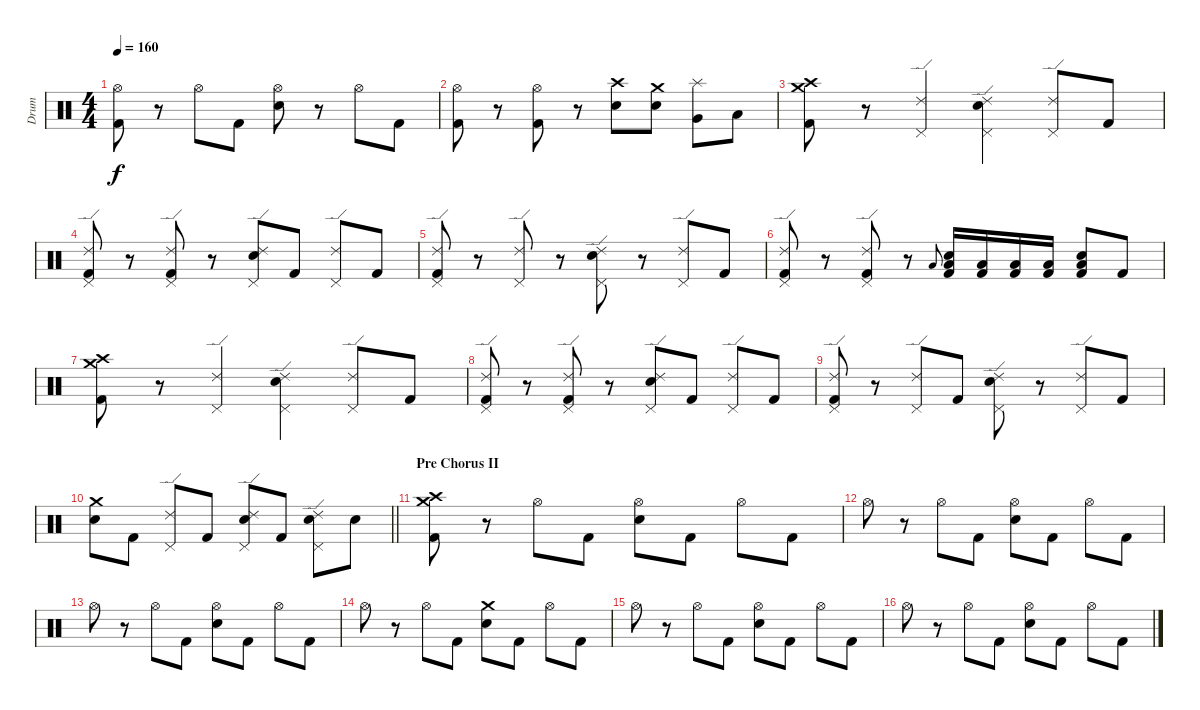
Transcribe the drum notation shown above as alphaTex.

\track ("Drum" "Drum") {instrument percussion}
\staff {score}
\articulation defaults
\ts (4 4)
\tempo 160
\clef neutral
\ks c
("Hi-Hat (open)" "Kick (hit) 2").8{dy f} r.8 "Hi-Hat (open)".8 "Kick (hit) 2".8 ("Hi-Hat (open)" "Electric Snare (hit)").8 r.8 "Hi-Hat (open)".8 "Kick (hit) 2".8 |
("Hi-Hat (open)" "Kick (hit) 2").8 r.8 ("Hi-Hat (open)" "Kick (hit) 2").8 r.8 ("Crash high (hit)" "Electric Snare (hit)").8 ("Crash medium (hit)" "Electric Snare (hit)").8 ("Splash (hit)" "Very Low Tom (hit)").8 "Low Floor Tom (hit)".8 |
("Kick (hit) 2" "Crash high (hit)" "Crash medium (hit)").8 r.8 ("Pedal Hi-Hat (hit)" "Ride (edge) 2").4 ("Ride (edge) 2" "Pedal Hi-Hat (hit)" "Electric Snare (hit)").4 ("Ride (edge) 2" "Pedal Hi-Hat (hit)").8 "Kick (hit) 2".8 |
("Ride (edge) 2" "Pedal Hi-Hat (hit)" "Kick (hit) 2").8 r.8 ("Ride (edge) 2" "Pedal Hi-Hat (hit)" "Kick (hit) 2").8 r.8 ("Ride (edge) 2" "Pedal Hi-Hat (hit)" "Electric Snare (hit)").8 "Kick (hit) 2".8 ("Ride (edge) 2" "Pedal Hi-Hat (hit)").8 "Kick (hit) 2".8 |
("Ride (edge) 2" "Pedal Hi-Hat (hit)" "Kick (hit) 2").8 r.8 ("Ride (edge) 2" "Pedal Hi-Hat (hit)").8 r.8 ("Ride (edge) 2" "Pedal Hi-Hat (hit)" "Electric Snare (hit)").8 r.8 ("Ride (edge) 2" "Pedal Hi-Hat (hit)").8 "Kick (hit) 2".8 |
("Ride (edge) 2" "Pedal Hi-Hat (hit)" "Kick (hit) 2").8 r.8 ("Ride (edge) 2" "Pedal Hi-Hat (hit)" "Kick (hit) 2").8 r.8 "Low Floor Tom (hit)".8{gr onbeat} ("Kick (hit) 2" "Electric Snare (hit)" "Low Floor Tom (hit)").16 ("Kick (hit) 2" "Low Floor Tom (hit)").16 ("Kick (hit) 2" "Low Floor Tom (hit)").16 ("Kick (hit) 2" "Low Floor Tom (hit)").16 ("Kick (hit) 2" "Electric Snare (hit)" "Low Floor Tom (hit)").8 "Kick (hit) 2".8 |
("Kick (hit) 2" "Crash high (hit)" "Crash medium (hit)").8 r.8 ("Ride (edge) 2" "Pedal Hi-Hat (hit)").4 ("Ride (edge) 2" "Electric Snare (hit)" "Pedal Hi-Hat (hit)").4 ("Ride (edge) 2" "Pedal Hi-Hat (hit)").8 "Kick (hit) 2".8 |
("Ride (edge) 2" "Pedal Hi-Hat (hit)" "Kick (hit) 2").8 r.8 ("Ride (edge) 2" "Pedal Hi-Hat (hit)" "Kick (hit) 2").8 r.8 ("Ride (edge) 2" "Pedal Hi-Hat (hit)" "Electric Snare (hit)").8 "Kick (hit) 2".8 ("Ride (edge) 2" "Pedal Hi-Hat (hit)").8 "Kick (hit) 2".8 |
("Ride (edge) 2" "Kick (hit) 2" "Pedal Hi-Hat (hit)").8 r.8 ("Ride (edge) 2" "Pedal Hi-Hat (hit)").8 "Kick (hit) 2".8 ("Ride (edge) 2" "Electric Snare (hit)" "Pedal Hi-Hat (hit)").8 r.8 ("Ride (edge) 2" "Pedal Hi-Hat (hit)").8 "Kick (hit) 2".8 |
\barLineRight lightlight
("Electric Snare (hit)" "Crash medium (hit)").8 "Kick (hit) 2".8 ("Ride (edge) 2" "Pedal Hi-Hat (hit)").8 "Kick (hit) 2".8 ("Electric Snare (hit)" "Ride (edge) 2" "Pedal Hi-Hat (hit)").8 "Kick (hit) 2".8 ("Electric Snare (hit)" "Ride (edge) 2" "Pedal Hi-Hat (hit)").8 "Electric Snare (hit)".8 |
\section ("" "Pre Chorus II")
("Crash medium (hit)" "Crash high (hit)" "Kick (hit) 2").8 r.8 "Hi-Hat (open)".8 "Kick (hit) 2".8 ("Hi-Hat (open)" "Electric Snare (hit)").8 "Kick (hit) 2".8 "Hi-Hat (open)".8 "Kick (hit) 2".8 |
"Hi-Hat (open)".8 r.8 "Hi-Hat (open)".8 "Kick (hit) 2".8 ("Hi-Hat (open)" "Electric Snare (hit)").8 "Kick (hit) 2".8 "Hi-Hat (open)".8 "Kick (hit) 2".8 |
"Hi-Hat (open)".8 r.8 "Hi-Hat (open)".8 "Kick (hit) 2".8 ("Hi-Hat (open)" "Electric Snare (hit)").8 "Kick (hit) 2".8 "Hi-Hat (open)".8 "Kick (hit) 2".8 |
"Hi-Hat (open)".8 r.8 "Hi-Hat (open)".8 "Kick (hit) 2".8 ("Crash medium (hit)" "Electric Snare (hit)").8 "Kick (hit) 2".8 "Hi-Hat (open)".8 "Kick (hit) 2".8 |
"Hi-Hat (open)".8 r.8 "Hi-Hat (open)".8 "Kick (hit) 2".8 ("Hi-Hat (open)" "Electric Snare (hit)").8 "Kick (hit) 2".8 "Hi-Hat (open)".8 "Kick (hit) 2".8 |
"Hi-Hat (open)".8 r.8 "Hi-Hat (open)".8 "Kick (hit) 2".8 ("Hi-Hat (open)" "Electric Snare (hit)").8 "Kick (hit) 2".8 "Hi-Hat (open)".8 "Kick (hit) 2".8
